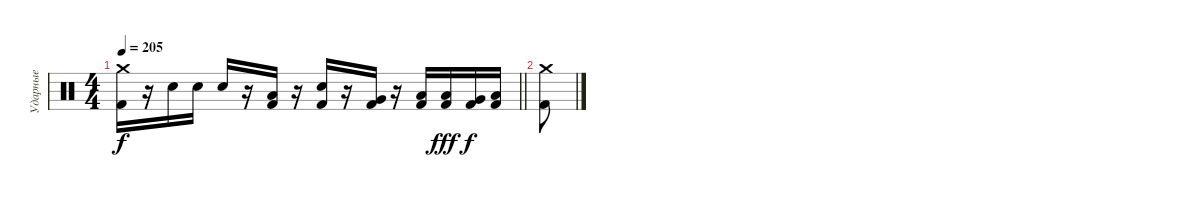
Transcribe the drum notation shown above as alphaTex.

\track ("Ударные" "Ударные") {instrument percussion}
\staff {score}
\articulation defaults
\ts (4 4)
\tempo 205
\clef neutral
\barLineRight lightlight
\ks c
("Crash medium (hit)" "Kick (hit) 2").16{dy f} r.16 "Snare (hit) 2".16 "Snare (hit) 2".16 "Snare (hit) 2".16 r.16 ("Low Floor Tom (hit)" "Kick (hit) 2").16 r.16 ("Snare (hit) 2" "Kick (hit) 2").16 r.16 ("Very Low Tom (hit)" "Kick (hit) 2").16 r.16 ("Low Tom (hit)" "Kick (hit) 2").16 ("Low Tom (hit)" "Kick (hit) 2").16{dy fff} ("Very Low Tom (hit)" "Kick (hit) 2").16{dy f} ("Low Floor Tom (hit)" "Kick (hit) 2").16 |
("Crash medium (hit)" "Kick (hit) 2").8
